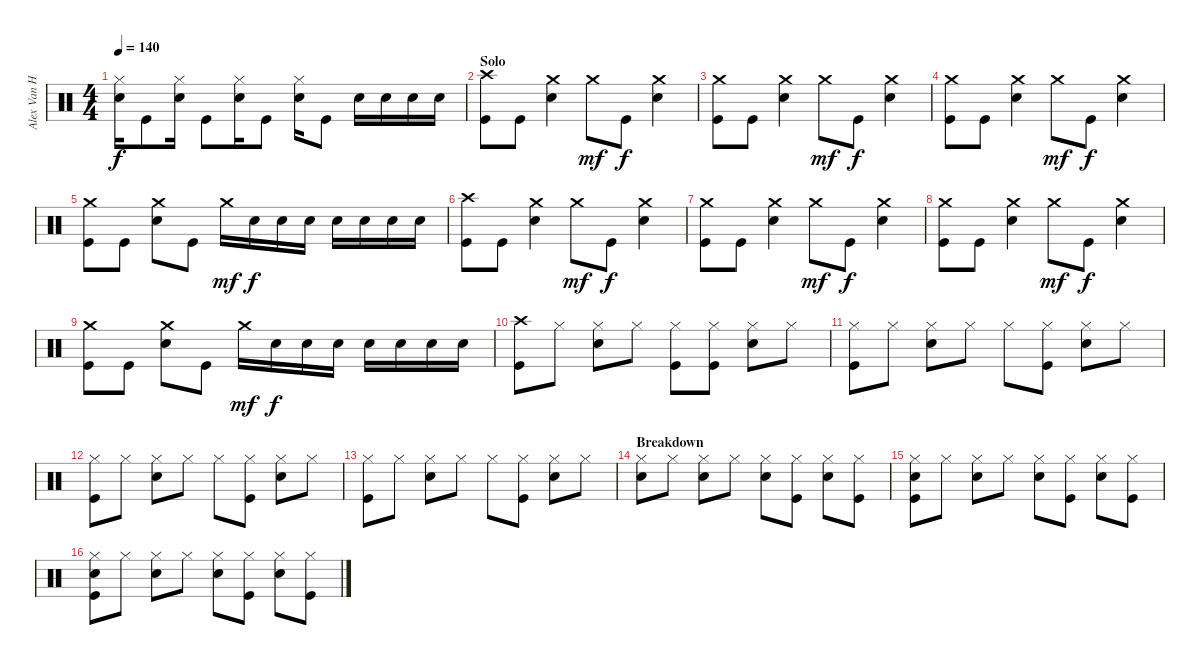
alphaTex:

\track ("Alex Van Halen (Drums)" "Alex Van H") {instrument percussion}
\staff {score}
\articulation defaults
\ts (4 4)
\tempo 140
\clef neutral
\ks c
("Hi-Hat (closed)" "Snare (hit) 2").16{dy f} "Kick (hit)".8 ("Hi-Hat (closed)" "Snare (hit) 2").16 "Kick (hit)".8 ("Hi-Hat (closed)" "Snare (hit) 2").16 "Kick (hit)".8 ("Hi-Hat (closed)" "Snare (hit) 2").16 "Kick (hit)".8 "Snare (hit) 2".16 "Snare (hit) 2".16 "Snare (hit) 2".16 "Snare (hit) 2".16 |
\section ("" "Solo")
("Crash high (hit)" "Kick (hit)").8 "Kick (hit)".8 ("Crash medium (hit)" "Snare (hit) 2").4 "Crash medium (hit)".8{dy mf} "Kick (hit)".8{dy f} ("Crash medium (hit)" "Snare (hit) 2").4 |
("Crash medium (hit)" "Kick (hit)").8 "Kick (hit)".8 ("Crash medium (hit)" "Snare (hit) 2").4 "Crash medium (hit)".8{dy mf} "Kick (hit)".8{dy f} ("Crash medium (hit)" "Snare (hit) 2").4 |
("Crash medium (hit)" "Kick (hit)").8 "Kick (hit)".8 ("Crash medium (hit)" "Snare (hit) 2").4 "Crash medium (hit)".8{dy mf} "Kick (hit)".8{dy f} ("Crash medium (hit)" "Snare (hit) 2").4 |
("Crash medium (hit)" "Kick (hit)").8 "Kick (hit)".8 ("Crash medium (hit)" "Snare (hit) 2").8 "Kick (hit)".8 "Crash medium (hit)".16{dy mf} "Snare (hit) 2".16{dy f} "Snare (hit) 2".16 "Snare (hit) 2".16 "Snare (hit) 2".16 "Snare (hit) 2".16 "Snare (hit) 2".16 "Snare (hit) 2".16 |
("Crash high (hit)" "Kick (hit)").8 "Kick (hit)".8 ("Crash medium (hit)" "Snare (hit) 2").4 "Crash medium (hit)".8{dy mf} "Kick (hit)".8{dy f} ("Crash medium (hit)" "Snare (hit) 2").4 |
("Crash medium (hit)" "Kick (hit)").8 "Kick (hit)".8 ("Crash medium (hit)" "Snare (hit) 2").4 "Crash medium (hit)".8{dy mf} "Kick (hit)".8{dy f} ("Crash medium (hit)" "Snare (hit) 2").4 |
("Crash medium (hit)" "Kick (hit)").8 "Kick (hit)".8 ("Crash medium (hit)" "Snare (hit) 2").4 "Crash medium (hit)".8{dy mf} "Kick (hit)".8{dy f} ("Crash medium (hit)" "Snare (hit) 2").4 |
("Crash medium (hit)" "Kick (hit)").8 "Kick (hit)".8 ("Crash medium (hit)" "Snare (hit) 2").8 "Kick (hit)".8 "Crash medium (hit)".16{dy mf} "Snare (hit) 2".16{dy f} "Snare (hit) 2".16 "Snare (hit) 2".16 "Snare (hit) 2".16 "Snare (hit) 2".16 "Snare (hit) 2".16 "Snare (hit) 2".16 |
("Crash high (hit)" "Kick (hit)").8 "Hi-Hat (closed)".8 ("Hi-Hat (closed)" "Snare (hit) 2").8 "Hi-Hat (closed)".8 ("Hi-Hat (closed)" "Kick (hit)").8 ("Hi-Hat (closed)" "Kick (hit)").8 ("Hi-Hat (closed)" "Snare (hit) 2").8 "Hi-Hat (closed)".8 |
("Hi-Hat (closed)" "Kick (hit)").8 "Hi-Hat (closed)".8 ("Hi-Hat (closed)" "Snare (hit) 2").8 "Hi-Hat (closed)".8 "Hi-Hat (closed)".8 ("Hi-Hat (closed)" "Kick (hit)").8 ("Hi-Hat (closed)" "Snare (hit) 2").8 "Hi-Hat (closed)".8 |
("Hi-Hat (closed)" "Kick (hit)").8 "Hi-Hat (closed)".8 ("Hi-Hat (closed)" "Snare (hit) 2").8 "Hi-Hat (closed)".8 "Hi-Hat (closed)".8 ("Hi-Hat (closed)" "Kick (hit)").8 ("Hi-Hat (closed)" "Snare (hit) 2").8 "Hi-Hat (closed)".8 |
("Hi-Hat (closed)" "Kick (hit)").8 "Hi-Hat (closed)".8 ("Hi-Hat (closed)" "Snare (hit) 2").8 "Hi-Hat (closed)".8 "Hi-Hat (closed)".8 ("Hi-Hat (closed)" "Kick (hit)").8 ("Hi-Hat (closed)" "Snare (hit) 2").8 "Hi-Hat (closed)".8 |
\section ("" "Breakdown")
("Hi-Hat (closed)" "Snare (hit) 2").8 "Hi-Hat (closed)".8 ("Hi-Hat (closed)" "Snare (hit) 2").8 "Hi-Hat (closed)".8 ("Hi-Hat (closed)" "Snare (hit) 2").8 ("Hi-Hat (closed)" "Kick (hit)").8 ("Hi-Hat (closed)" "Snare (hit) 2").8 ("Hi-Hat (closed)" "Kick (hit)").8 |
("Hi-Hat (closed)" "Snare (hit) 2" "Kick (hit)").8 "Hi-Hat (closed)".8 ("Hi-Hat (closed)" "Snare (hit) 2").8 "Hi-Hat (closed)".8 ("Hi-Hat (closed)" "Snare (hit) 2").8 ("Hi-Hat (closed)" "Kick (hit)").8 ("Hi-Hat (closed)" "Snare (hit) 2").8 ("Hi-Hat (closed)" "Kick (hit)").8 |
("Hi-Hat (closed)" "Snare (hit) 2" "Kick (hit)").8 "Hi-Hat (closed)".8 ("Hi-Hat (closed)" "Snare (hit) 2").8 "Hi-Hat (closed)".8 ("Hi-Hat (closed)" "Snare (hit) 2").8 ("Hi-Hat (closed)" "Kick (hit)").8 ("Hi-Hat (closed)" "Snare (hit) 2").8 ("Hi-Hat (closed)" "Kick (hit)").8
